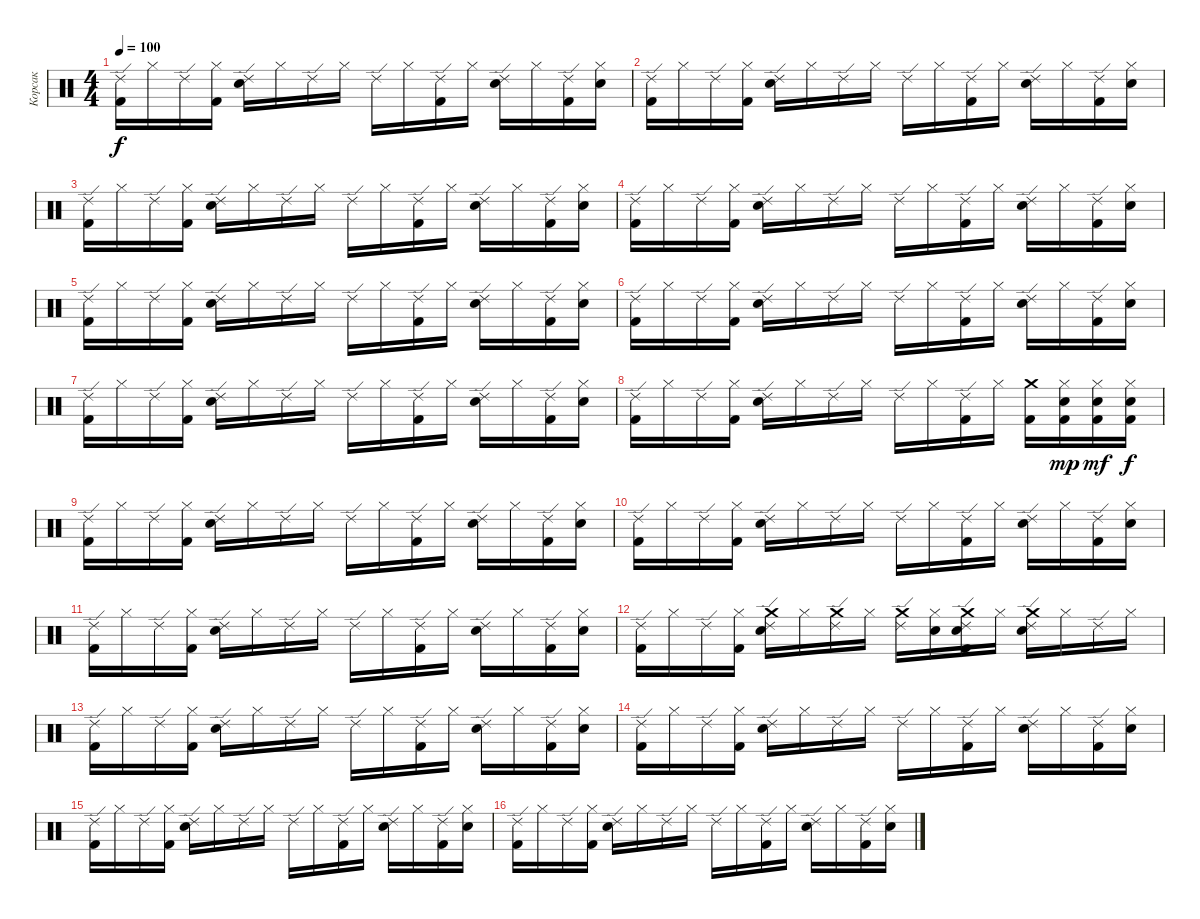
\track ("Корсак" "Корсак") {instrument percussion}
\staff {score}
\articulation defaults
\ts (4 4)
\tempo 100
\clef neutral
\ks c
("Ride (edge) 2" "Kick (hit) 2").16{dy f} "Hi-Hat (closed)".16 "Ride (edge) 2".16 ("Hi-Hat (closed)" "Kick (hit) 2").16 ("Ride (edge) 2" "Electric Snare (hit)").16 "Hi-Hat (closed)".16 "Ride (edge) 2".16 "Hi-Hat (closed)".16 "Ride (edge) 2".16 "Hi-Hat (closed)".16 ("Ride (edge) 2" "Kick (hit) 2").16 "Hi-Hat (closed)".16 ("Ride (edge) 2" "Electric Snare (hit)").16 "Hi-Hat (closed)".16 ("Ride (edge) 2" "Kick (hit) 2").16 ("Hi-Hat (closed)" "Electric Snare (hit)").16 |
("Ride (edge) 2" "Kick (hit) 2").16 "Hi-Hat (closed)".16 "Ride (edge) 2".16 ("Hi-Hat (closed)" "Kick (hit) 2").16 ("Ride (edge) 2" "Electric Snare (hit)").16 "Hi-Hat (closed)".16 "Ride (edge) 2".16 "Hi-Hat (closed)".16 "Ride (edge) 2".16 "Hi-Hat (closed)".16 ("Ride (edge) 2" "Kick (hit) 2").16 "Hi-Hat (closed)".16 ("Ride (edge) 2" "Electric Snare (hit)").16 "Hi-Hat (closed)".16 ("Ride (edge) 2" "Kick (hit) 2").16 ("Hi-Hat (closed)" "Electric Snare (hit)").16 |
("Ride (edge) 2" "Kick (hit) 2").16 "Hi-Hat (closed)".16 "Ride (edge) 2".16 ("Hi-Hat (closed)" "Kick (hit) 2").16 ("Ride (edge) 2" "Electric Snare (hit)").16 "Hi-Hat (closed)".16 "Ride (edge) 2".16 "Hi-Hat (closed)".16 "Ride (edge) 2".16 "Hi-Hat (closed)".16 ("Ride (edge) 2" "Kick (hit) 2").16 "Hi-Hat (closed)".16 ("Ride (edge) 2" "Electric Snare (hit)").16 "Hi-Hat (closed)".16 ("Ride (edge) 2" "Kick (hit) 2").16 ("Hi-Hat (closed)" "Electric Snare (hit)").16 |
("Ride (edge) 2" "Kick (hit) 2").16 "Hi-Hat (closed)".16 "Ride (edge) 2".16 ("Hi-Hat (closed)" "Kick (hit) 2").16 ("Ride (edge) 2" "Electric Snare (hit)").16 "Hi-Hat (closed)".16 "Ride (edge) 2".16 "Hi-Hat (closed)".16 "Ride (edge) 2".16 "Hi-Hat (closed)".16 ("Ride (edge) 2" "Kick (hit) 2").16 "Hi-Hat (closed)".16 ("Ride (edge) 2" "Electric Snare (hit)").16 "Hi-Hat (closed)".16 ("Ride (edge) 2" "Kick (hit) 2").16 ("Hi-Hat (closed)" "Electric Snare (hit)").16 |
("Ride (edge) 2" "Kick (hit) 2").16 "Hi-Hat (closed)".16 "Ride (edge) 2".16 ("Hi-Hat (closed)" "Kick (hit) 2").16 ("Ride (edge) 2" "Electric Snare (hit)").16 "Hi-Hat (closed)".16 "Ride (edge) 2".16 "Hi-Hat (closed)".16 "Ride (edge) 2".16 "Hi-Hat (closed)".16 ("Ride (edge) 2" "Kick (hit) 2").16 "Hi-Hat (closed)".16 ("Ride (edge) 2" "Electric Snare (hit)").16 "Hi-Hat (closed)".16 ("Ride (edge) 2" "Kick (hit) 2").16 ("Hi-Hat (closed)" "Electric Snare (hit)").16 |
("Ride (edge) 2" "Kick (hit) 2").16 "Hi-Hat (closed)".16 "Ride (edge) 2".16 ("Hi-Hat (closed)" "Kick (hit) 2").16 ("Ride (edge) 2" "Electric Snare (hit)").16 "Hi-Hat (closed)".16 "Ride (edge) 2".16 "Hi-Hat (closed)".16 "Ride (edge) 2".16 "Hi-Hat (closed)".16 ("Ride (edge) 2" "Kick (hit) 2").16 "Hi-Hat (closed)".16 ("Ride (edge) 2" "Electric Snare (hit)").16 "Hi-Hat (closed)".16 ("Ride (edge) 2" "Kick (hit) 2").16 ("Hi-Hat (closed)" "Electric Snare (hit)").16 |
("Ride (edge) 2" "Kick (hit) 2").16 "Hi-Hat (closed)".16 "Ride (edge) 2".16 ("Hi-Hat (closed)" "Kick (hit) 2").16 ("Ride (edge) 2" "Electric Snare (hit)").16 "Hi-Hat (closed)".16 "Ride (edge) 2".16 "Hi-Hat (closed)".16 "Ride (edge) 2".16 "Hi-Hat (closed)".16 ("Ride (edge) 2" "Kick (hit) 2").16 "Hi-Hat (closed)".16 ("Ride (edge) 2" "Electric Snare (hit)").16 "Hi-Hat (closed)".16 ("Ride (edge) 2" "Kick (hit) 2").16 ("Hi-Hat (closed)" "Electric Snare (hit)").16 |
("Ride (edge) 2" "Kick (hit) 2").16 "Hi-Hat (closed)".16 "Ride (edge) 2".16 ("Hi-Hat (closed)" "Kick (hit) 2").16 ("Ride (edge) 2" "Electric Snare (hit)").16 "Hi-Hat (closed)".16 "Ride (edge) 2".16 "Hi-Hat (closed)".16 "Ride (edge) 2".16 "Hi-Hat (closed)".16 ("Ride (edge) 2" "Kick (hit) 2").16 "Hi-Hat (closed)".16 ("Crash medium (hit)" "Kick (hit) 2").16 ("Hi-Hat (closed)" "Electric Snare (hit)" "Kick (hit) 2").16{dy mp} ("Hi-Hat (closed)" "Electric Snare (hit)" "Kick (hit) 2").16{dy mf} ("Hi-Hat (closed)" "Electric Snare (hit)" "Kick (hit) 2").16{dy f} |
("Ride (edge) 2" "Kick (hit) 2").16 "Hi-Hat (closed)".16 "Ride (edge) 2".16 ("Hi-Hat (closed)" "Kick (hit) 2").16 ("Ride (edge) 2" "Electric Snare (hit)").16 "Hi-Hat (closed)".16 "Ride (edge) 2".16 "Hi-Hat (closed)".16 "Ride (edge) 2".16 "Hi-Hat (closed)".16 ("Ride (edge) 2" "Kick (hit) 2").16 "Hi-Hat (closed)".16 ("Ride (edge) 2" "Electric Snare (hit)").16 "Hi-Hat (closed)".16 ("Ride (edge) 2" "Kick (hit) 2").16 ("Hi-Hat (closed)" "Electric Snare (hit)").16 |
("Ride (edge) 2" "Kick (hit) 2").16 "Hi-Hat (closed)".16 "Ride (edge) 2".16 ("Hi-Hat (closed)" "Kick (hit) 2").16 ("Ride (edge) 2" "Electric Snare (hit)").16 "Hi-Hat (closed)".16 "Ride (edge) 2".16 "Hi-Hat (closed)".16 "Ride (edge) 2".16 "Hi-Hat (closed)".16 ("Ride (edge) 2" "Kick (hit) 2").16 "Hi-Hat (closed)".16 ("Ride (edge) 2" "Electric Snare (hit)").16 "Hi-Hat (closed)".16 ("Ride (edge) 2" "Kick (hit) 2").16 ("Hi-Hat (closed)" "Electric Snare (hit)").16 |
("Ride (edge) 2" "Kick (hit) 2").16 "Hi-Hat (closed)".16 "Ride (edge) 2".16 ("Hi-Hat (closed)" "Kick (hit) 2").16 ("Ride (edge) 2" "Electric Snare (hit)").16 "Hi-Hat (closed)".16 "Ride (edge) 2".16 "Hi-Hat (closed)".16 "Ride (edge) 2".16 "Hi-Hat (closed)".16 ("Ride (edge) 2" "Kick (hit) 2").16 "Hi-Hat (closed)".16 ("Ride (edge) 2" "Electric Snare (hit)").16 "Hi-Hat (closed)".16 ("Ride (edge) 2" "Kick (hit) 2").16 ("Hi-Hat (closed)" "Electric Snare (hit)").16 |
("Ride (edge) 2" "Kick (hit) 2").16 "Hi-Hat (closed)".16 "Ride (edge) 2".16 ("Hi-Hat (closed)" "Kick (hit) 2").16 ("Ride (edge) 2" "Electric Snare (hit)" "Crash medium (hit)").16 "Hi-Hat (closed)".16 ("Ride (edge) 2" "Crash medium (hit)").16 "Hi-Hat (closed)".16 ("Ride (edge) 2" "Crash medium (hit)").16 ("Hi-Hat (closed)" "Electric Snare (hit)").16 ("Ride (edge) 2" "Electric Snare (hit)" "Crash medium (hit)" "Kick (hit) 2").16 "Hi-Hat (closed)".16 ("Ride (edge) 2" "Electric Snare (hit)" "Crash medium (hit)").16 "Hi-Hat (closed)".16 "Ride (edge) 2".16 "Hi-Hat (closed)".16 |
("Ride (edge) 2" "Kick (hit) 2").16 "Hi-Hat (closed)".16 "Ride (edge) 2".16 ("Hi-Hat (closed)" "Kick (hit) 2").16 ("Ride (edge) 2" "Electric Snare (hit)").16 "Hi-Hat (closed)".16 "Ride (edge) 2".16 "Hi-Hat (closed)".16 "Ride (edge) 2".16 "Hi-Hat (closed)".16 ("Ride (edge) 2" "Kick (hit) 2").16 "Hi-Hat (closed)".16 ("Ride (edge) 2" "Electric Snare (hit)").16 "Hi-Hat (closed)".16 ("Ride (edge) 2" "Kick (hit) 2").16 ("Hi-Hat (closed)" "Electric Snare (hit)").16 |
("Ride (edge) 2" "Kick (hit) 2").16 "Hi-Hat (closed)".16 "Ride (edge) 2".16 ("Hi-Hat (closed)" "Kick (hit) 2").16 ("Ride (edge) 2" "Electric Snare (hit)").16 "Hi-Hat (closed)".16 "Ride (edge) 2".16 "Hi-Hat (closed)".16 "Ride (edge) 2".16 "Hi-Hat (closed)".16 ("Ride (edge) 2" "Kick (hit) 2").16 "Hi-Hat (closed)".16 ("Ride (edge) 2" "Electric Snare (hit)").16 "Hi-Hat (closed)".16 ("Ride (edge) 2" "Kick (hit) 2").16 ("Hi-Hat (closed)" "Electric Snare (hit)").16 |
("Ride (edge) 2" "Kick (hit) 2").16 "Hi-Hat (closed)".16 "Ride (edge) 2".16 ("Hi-Hat (closed)" "Kick (hit) 2").16 ("Ride (edge) 2" "Electric Snare (hit)").16 "Hi-Hat (closed)".16 "Ride (edge) 2".16 "Hi-Hat (closed)".16 "Ride (edge) 2".16 "Hi-Hat (closed)".16 ("Ride (edge) 2" "Kick (hit) 2").16 "Hi-Hat (closed)".16 ("Ride (edge) 2" "Electric Snare (hit)").16 "Hi-Hat (closed)".16 ("Ride (edge) 2" "Kick (hit) 2").16 ("Hi-Hat (closed)" "Electric Snare (hit)").16 |
("Ride (edge) 2" "Kick (hit) 2").16 "Hi-Hat (closed)".16 "Ride (edge) 2".16 ("Hi-Hat (closed)" "Kick (hit) 2").16 ("Ride (edge) 2" "Electric Snare (hit)").16 "Hi-Hat (closed)".16 "Ride (edge) 2".16 "Hi-Hat (closed)".16 "Ride (edge) 2".16 "Hi-Hat (closed)".16 ("Ride (edge) 2" "Kick (hit) 2").16 "Hi-Hat (closed)".16 ("Ride (edge) 2" "Electric Snare (hit)").16 "Hi-Hat (closed)".16 ("Ride (edge) 2" "Kick (hit) 2").16 ("Hi-Hat (closed)" "Electric Snare (hit)").16
